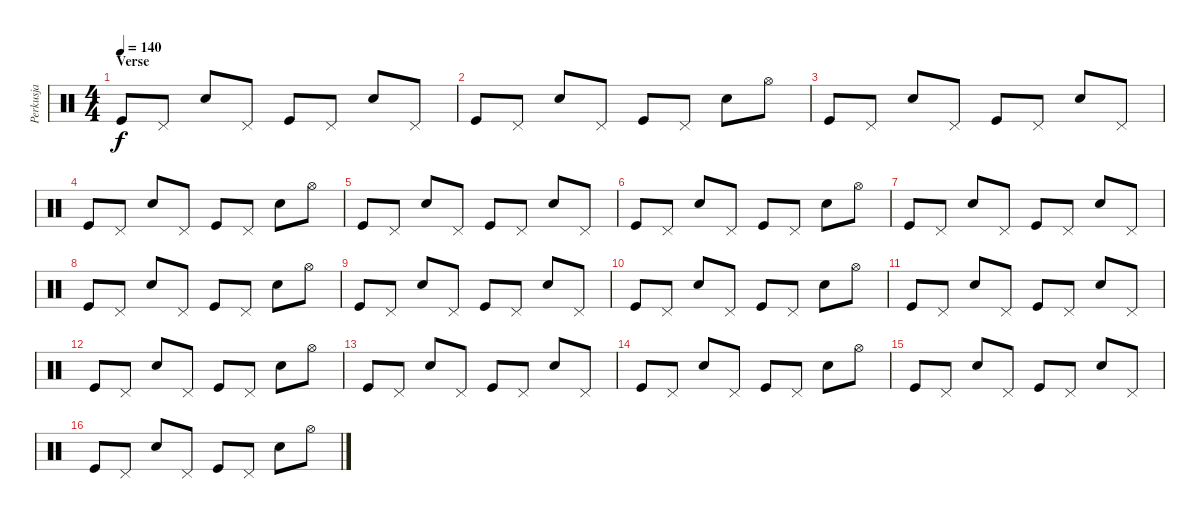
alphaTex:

\track ("Perkusja" "Perkusja") {instrument percussion}
\staff {score}
\articulation defaults
\ts (4 4)
\section ("" "Verse")
\tempo 140
\clef neutral
\ks c "Kick (hit)".8{dy f} "Pedal Hi-Hat (hit)".8 "Electric Snare (hit)".8 "Pedal Hi-Hat (hit)".8 "Kick (hit)".8 "Pedal Hi-Hat (hit)".8 "Electric Snare (hit)".8 "Pedal Hi-Hat (hit)".8
|
"Kick (hit)".8 "Pedal Hi-Hat (hit)".8 "Electric Snare (hit)".8 "Pedal Hi-Hat (hit)".8 "Kick (hit)".8 "Pedal Hi-Hat (hit)".8 "Electric Snare (hit)".8 "Hi-Hat (open)".8 |
"Kick (hit)".8 "Pedal Hi-Hat (hit)".8 "Electric Snare (hit)".8 "Pedal Hi-Hat (hit)".8 "Kick (hit)".8 "Pedal Hi-Hat (hit)".8 "Electric Snare (hit)".8 "Pedal Hi-Hat (hit)".8 |
"Kick (hit)".8 "Pedal Hi-Hat (hit)".8 "Electric Snare (hit)".8 "Pedal Hi-Hat (hit)".8 "Kick (hit)".8 "Pedal Hi-Hat (hit)".8 "Electric Snare (hit)".8 "Hi-Hat (open)".8 |
"Kick (hit)".8 "Pedal Hi-Hat (hit)".8 "Electric Snare (hit)".8 "Pedal Hi-Hat (hit)".8 "Kick (hit)".8 "Pedal Hi-Hat (hit)".8 "Electric Snare (hit)".8 "Pedal Hi-Hat (hit)".8 |
"Kick (hit)".8 "Pedal Hi-Hat (hit)".8 "Electric Snare (hit)".8 "Pedal Hi-Hat (hit)".8 "Kick (hit)".8 "Pedal Hi-Hat (hit)".8 "Electric Snare (hit)".8 "Hi-Hat (open)".8 |
"Kick (hit)".8 "Pedal Hi-Hat (hit)".8 "Electric Snare (hit)".8 "Pedal Hi-Hat (hit)".8 "Kick (hit)".8 "Pedal Hi-Hat (hit)".8 "Electric Snare (hit)".8 "Pedal Hi-Hat (hit)".8 |
"Kick (hit)".8 "Pedal Hi-Hat (hit)".8 "Electric Snare (hit)".8 "Pedal Hi-Hat (hit)".8 "Kick (hit)".8 "Pedal Hi-Hat (hit)".8 "Electric Snare (hit)".8 "Hi-Hat (open)".8 |
"Kick (hit)".8 "Pedal Hi-Hat (hit)".8 "Electric Snare (hit)".8 "Pedal Hi-Hat (hit)".8 "Kick (hit)".8 "Pedal Hi-Hat (hit)".8 "Electric Snare (hit)".8 "Pedal Hi-Hat (hit)".8 |
"Kick (hit)".8 "Pedal Hi-Hat (hit)".8 "Electric Snare (hit)".8 "Pedal Hi-Hat (hit)".8 "Kick (hit)".8 "Pedal Hi-Hat (hit)".8 "Electric Snare (hit)".8 "Hi-Hat (open)".8 |
"Kick (hit)".8 "Pedal Hi-Hat (hit)".8 "Electric Snare (hit)".8 "Pedal Hi-Hat (hit)".8 "Kick (hit)".8 "Pedal Hi-Hat (hit)".8 "Electric Snare (hit)".8 "Pedal Hi-Hat (hit)".8 |
"Kick (hit)".8 "Pedal Hi-Hat (hit)".8 "Electric Snare (hit)".8 "Pedal Hi-Hat (hit)".8 "Kick (hit)".8 "Pedal Hi-Hat (hit)".8 "Electric Snare (hit)".8 "Hi-Hat (open)".8 |
"Kick (hit)".8 "Pedal Hi-Hat (hit)".8 "Electric Snare (hit)".8 "Pedal Hi-Hat (hit)".8 "Kick (hit)".8 "Pedal Hi-Hat (hit)".8 "Electric Snare (hit)".8 "Pedal Hi-Hat (hit)".8 |
"Kick (hit)".8 "Pedal Hi-Hat (hit)".8 "Electric Snare (hit)".8 "Pedal Hi-Hat (hit)".8 "Kick (hit)".8 "Pedal Hi-Hat (hit)".8 "Electric Snare (hit)".8 "Hi-Hat (open)".8 |
"Kick (hit)".8 "Pedal Hi-Hat (hit)".8 "Electric Snare (hit)".8 "Pedal Hi-Hat (hit)".8 "Kick (hit)".8 "Pedal Hi-Hat (hit)".8 "Electric Snare (hit)".8 "Pedal Hi-Hat (hit)".8 |
"Kick (hit)".8 "Pedal Hi-Hat (hit)".8 "Electric Snare (hit)".8 "Pedal Hi-Hat (hit)".8 "Kick (hit)".8 "Pedal Hi-Hat (hit)".8 "Electric Snare (hit)".8 "Hi-Hat (open)".8
